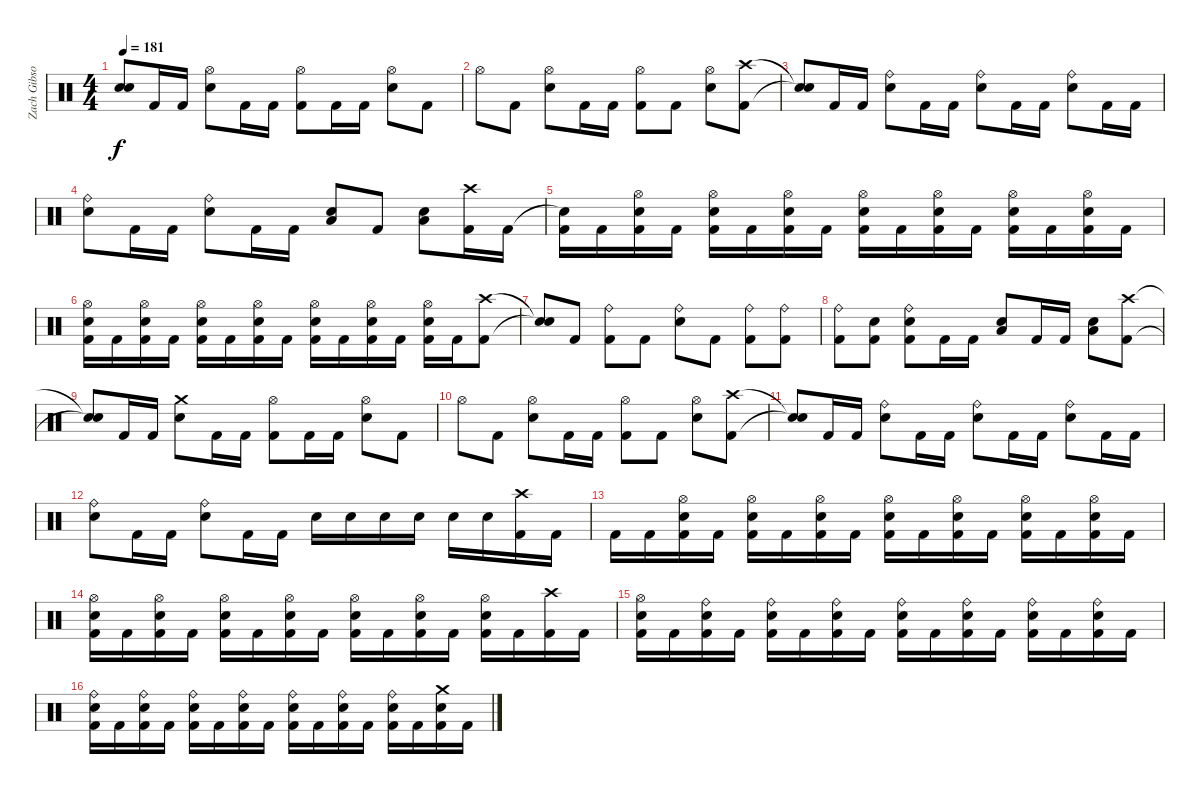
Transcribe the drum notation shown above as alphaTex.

\track ("Zach Gibson (Drums)" "Zach Gibso") {instrument percussion}
\staff {score}
\articulation defaults
\ts (4 4)
\tempo 181
\clef neutral
\ks c
("Snare (hit)"{t} "Snare (hit)"{t}).8{dy f} "Kick (hit) 2".16 "Kick (hit) 2".16 ("Hi-Hat (open)" "Snare (hit) 2").8 "Kick (hit) 2".16 "Kick (hit) 2".16 ("Kick (hit) 2" "Hi-Hat (open)").8 "Kick (hit) 2".16 "Kick (hit) 2".16 ("Hi-Hat (open)" "Snare (hit) 2").8 "Kick (hit) 2".8 |
"Hi-Hat (open)".8 "Kick (hit) 2".8 ("Hi-Hat (open)" "Snare (hit) 2").8 "Kick (hit) 2".16 "Kick (hit) 2".16 ("Kick (hit) 2" "Hi-Hat (open)").8 "Kick (hit) 2".8 ("Hi-Hat (open)" "Snare (hit) 2").8 ("Crash high (hit)" "Kick (hit) 2").8 |
("Snare (hit)"{t} "Snare (hit)"{t}).8 "Kick (hit) 2".16 "Kick (hit) 2".16 ("Ride (bell)" "Snare (hit) 2").8 "Kick (hit) 2".16 "Kick (hit) 2".16 ("Ride (bell)" "Snare (hit) 2").8 "Kick (hit) 2".16 "Kick (hit) 2".16 ("Ride (bell)" "Snare (hit) 2").8 "Kick (hit) 2".16 "Kick (hit) 2".16 |
("Ride (bell)" "Snare (hit) 2").8 "Kick (hit) 2".16 "Kick (hit) 2".16 ("Ride (bell)" "Snare (hit) 2").8 "Kick (hit) 2".16 "Kick (hit) 2".16 ("Low Floor Tom (hit)" "Snare (hit) 2").8 "Kick (hit) 2".8 ("Low Floor Tom (hit)" "Snare (hit) 2").8 ("Crash high (hit)" "Kick (hit) 2").16 "Kick (hit) 2".16 |
("Snare (hit)"{t} "Kick (hit) 2").16 "Kick (hit) 2".16 ("Hi-Hat (open)" "Snare (hit) 2" "Kick (hit) 2").16 "Kick (hit) 2".16 ("Hi-Hat (open)" "Snare (hit) 2" "Kick (hit) 2").16 "Kick (hit) 2".16 ("Hi-Hat (open)" "Snare (hit) 2" "Kick (hit) 2").16 "Kick (hit) 2".16 ("Hi-Hat (open)" "Snare (hit) 2" "Kick (hit) 2").16 "Kick (hit) 2".16 ("Hi-Hat (open)" "Snare (hit) 2" "Kick (hit) 2").16 "Kick (hit) 2".16 ("Hi-Hat (open)" "Snare (hit) 2" "Kick (hit) 2").16 "Kick (hit) 2".16 ("Hi-Hat (open)" "Snare (hit) 2" "Kick (hit) 2").16 "Kick (hit) 2".16 |
("Hi-Hat (open)" "Snare (hit) 2" "Kick (hit) 2").16 "Kick (hit) 2".16 ("Hi-Hat (open)" "Snare (hit) 2" "Kick (hit) 2").16 "Kick (hit) 2".16 ("Hi-Hat (open)" "Snare (hit) 2" "Kick (hit) 2").16 "Kick (hit) 2".16 ("Hi-Hat (open)" "Snare (hit) 2" "Kick (hit) 2").16 "Kick (hit) 2".16 ("Hi-Hat (open)" "Snare (hit) 2" "Kick (hit) 2").16 "Kick (hit) 2".16 ("Hi-Hat (open)" "Snare (hit) 2" "Kick (hit) 2").16 "Kick (hit) 2".16 ("Hi-Hat (open)" "Snare (hit) 2" "Kick (hit) 2").16 "Kick (hit) 2".16 ("Crash high (hit)" "Kick (hit) 2").8 |
("Snare (hit)"{t} "Snare (hit)"{t}).8 "Kick (hit) 2".8 ("Ride (bell)" "Kick (hit) 2").8 "Kick (hit) 2".8 ("Ride (bell)" "Snare (hit) 2").8 "Kick (hit) 2".8 ("Ride (bell)" "Kick (hit) 2").8 ("Ride (bell)" "Kick (hit) 2").8 |
("Ride (bell)" "Kick (hit) 2").8 ("Snare (hit) 2" "Kick (hit) 2").8 ("Snare (hit) 2" "Ride (bell)" "Kick (hit) 2").8 "Kick (hit) 2".16 "Kick (hit) 2".16 ("Low Floor Tom (hit)" "Snare (hit) 2").8 "Kick (hit) 2".16 "Kick (hit) 2".16 ("Low Floor Tom (hit)" "Snare (hit) 2").8 ("Crash high (hit)" "Kick (hit) 2").8 |
("Snare (hit)"{t} "Snare (hit)"{t}).8 "Kick (hit) 2".16 "Kick (hit) 2".16 ("Crash medium (hit)" "Snare (hit) 2").8 "Kick (hit) 2".16 "Kick (hit) 2".16 ("Kick (hit) 2" "Hi-Hat (open)").8 "Kick (hit) 2".16 "Kick (hit) 2".16 ("Hi-Hat (open)" "Snare (hit) 2").8 "Kick (hit) 2".8 |
"Hi-Hat (open)".8 "Kick (hit) 2".8 ("Hi-Hat (open)" "Snare (hit) 2").8 "Kick (hit) 2".16 "Kick (hit) 2".16 ("Kick (hit) 2" "Hi-Hat (open)").8 "Kick (hit) 2".8 ("Hi-Hat (open)" "Snare (hit) 2").8 ("Crash high (hit)" "Kick (hit) 2").8 |
("Snare (hit)"{t} "Snare (hit)"{t}).8 "Kick (hit) 2".16 "Kick (hit) 2".16 ("Ride (bell)" "Snare (hit) 2").8 "Kick (hit) 2".16 "Kick (hit) 2".16 ("Ride (bell)" "Snare (hit) 2").8 "Kick (hit) 2".16 "Kick (hit) 2".16 ("Ride (bell)" "Snare (hit) 2").8 "Kick (hit) 2".16 "Kick (hit) 2".16 |
("Ride (bell)" "Snare (hit) 2").8 "Kick (hit) 2".16 "Kick (hit) 2".16 ("Ride (bell)" "Snare (hit) 2").8 "Kick (hit) 2".16 "Kick (hit) 2".16 "Snare (hit) 2".16 "Snare (hit) 2".16 "Snare (hit) 2".16 "Snare (hit) 2".16 "Snare (hit) 2".16 "Snare (hit) 2".16 ("Crash high (hit)" "Kick (hit) 2").16 "Kick (hit) 2".16 |
"Kick (hit) 2".16 "Kick (hit) 2".16 ("Hi-Hat (open)" "Snare (hit) 2" "Kick (hit) 2").16 "Kick (hit) 2".16 ("Hi-Hat (open)" "Snare (hit) 2" "Kick (hit) 2").16 "Kick (hit) 2".16 ("Hi-Hat (open)" "Snare (hit) 2" "Kick (hit) 2").16 "Kick (hit) 2".16 ("Hi-Hat (open)" "Snare (hit) 2" "Kick (hit) 2").16 "Kick (hit) 2".16 ("Hi-Hat (open)" "Snare (hit) 2" "Kick (hit) 2").16 "Kick (hit) 2".16 ("Hi-Hat (open)" "Snare (hit) 2" "Kick (hit) 2").16 "Kick (hit) 2".16 ("Hi-Hat (open)" "Snare (hit) 2" "Kick (hit) 2").16 "Kick (hit) 2".16 |
("Hi-Hat (open)" "Snare (hit) 2" "Kick (hit) 2").16 "Kick (hit) 2".16 ("Hi-Hat (open)" "Snare (hit) 2" "Kick (hit) 2").16 "Kick (hit) 2".16 ("Hi-Hat (open)" "Snare (hit) 2" "Kick (hit) 2").16 "Kick (hit) 2".16 ("Hi-Hat (open)" "Snare (hit) 2" "Kick (hit) 2").16 "Kick (hit) 2".16 ("Hi-Hat (open)" "Snare (hit) 2" "Kick (hit) 2").16 "Kick (hit) 2".16 ("Hi-Hat (open)" "Snare (hit) 2" "Kick (hit) 2").16 "Kick (hit) 2".16 ("Hi-Hat (open)" "Snare (hit) 2" "Kick (hit) 2").16 "Kick (hit) 2".16 ("Crash high (hit)" "Kick (hit) 2").16 "Kick (hit) 2".16 |
("Hi-Hat (open)" "Snare (hit) 2" "Kick (hit) 2").16 "Kick (hit) 2".16 ("Ride (bell)" "Snare (hit) 2" "Kick (hit) 2").16 "Kick (hit) 2".16 ("Ride (bell)" "Snare (hit) 2" "Kick (hit) 2").16 "Kick (hit) 2".16 ("Ride (bell)" "Snare (hit) 2" "Kick (hit) 2").16 "Kick (hit) 2".16 ("Ride (bell)" "Snare (hit) 2" "Kick (hit) 2").16 "Kick (hit) 2".16 ("Ride (bell)" "Snare (hit) 2" "Kick (hit) 2").16 "Kick (hit) 2".16 ("Ride (bell)" "Snare (hit) 2" "Kick (hit) 2").16 "Kick (hit) 2".16 ("Ride (bell)" "Snare (hit) 2" "Kick (hit) 2").16 "Kick (hit) 2".16 |
("Ride (bell)" "Snare (hit) 2" "Kick (hit) 2").16 "Kick (hit) 2".16 ("Ride (bell)" "Snare (hit) 2" "Kick (hit) 2").16 "Kick (hit) 2".16 ("Ride (bell)" "Snare (hit) 2" "Kick (hit) 2").16 "Kick (hit) 2".16 ("Ride (bell)" "Snare (hit) 2" "Kick (hit) 2").16 "Kick (hit) 2".16 ("Ride (bell)" "Snare (hit) 2" "Kick (hit) 2").16 "Kick (hit) 2".16 ("Ride (bell)" "Snare (hit) 2" "Kick (hit) 2").16 "Kick (hit) 2".16 ("Ride (bell)" "Snare (hit) 2" "Kick (hit) 2").16 "Kick (hit) 2".16 ("Crash medium (hit)" "Snare (hit) 2" "Kick (hit) 2").16 "Kick (hit) 2".16
